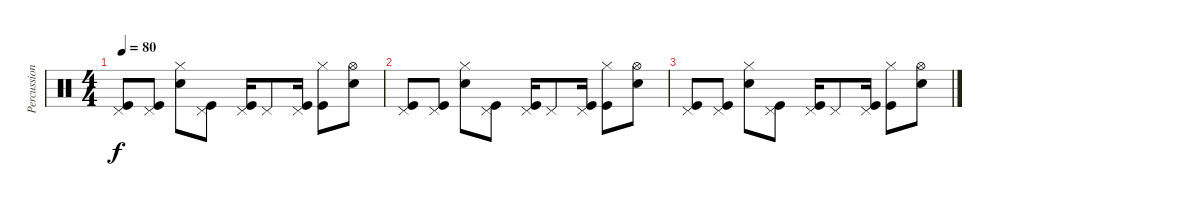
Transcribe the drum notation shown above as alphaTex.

\track ("Percussions" "Percussion") {instrument percussion}
\staff {score}
\articulation defaults
\ts (4 4)
\tempo 80
\clef neutral
\ks c
("Pedal Hi-Hat (hit)" "Kick (hit)").8{dy f} ("Pedal Hi-Hat (hit)" "Kick (hit)").8 ("Hi-Hat (closed)" "Electric Snare (hit)").8 ("Pedal Hi-Hat (hit)" "Kick (hit)").8 ("Pedal Hi-Hat (hit)" "Kick (hit)").16 "Pedal Hi-Hat (hit)".8 ("Pedal Hi-Hat (hit)" "Kick (hit)").16 ("Hi-Hat (closed)" "Kick (hit)").8 ("Hi-Hat (open)" "Electric Snare (hit)").8 |
("Pedal Hi-Hat (hit)" "Kick (hit)").8 ("Pedal Hi-Hat (hit)" "Kick (hit)").8 ("Hi-Hat (closed)" "Electric Snare (hit)").8 ("Pedal Hi-Hat (hit)" "Kick (hit)").8 ("Pedal Hi-Hat (hit)" "Kick (hit)").16 "Pedal Hi-Hat (hit)".8 ("Pedal Hi-Hat (hit)" "Kick (hit)").16 ("Hi-Hat (closed)" "Kick (hit)").8 ("Hi-Hat (open)" "Electric Snare (hit)").8 |
("Pedal Hi-Hat (hit)" "Kick (hit)").8 ("Pedal Hi-Hat (hit)" "Kick (hit)").8 ("Hi-Hat (closed)" "Electric Snare (hit)").8 ("Pedal Hi-Hat (hit)" "Kick (hit)").8 ("Pedal Hi-Hat (hit)" "Kick (hit)").16 "Pedal Hi-Hat (hit)".8 ("Pedal Hi-Hat (hit)" "Kick (hit)").16 ("Hi-Hat (closed)" "Kick (hit)").8 ("Hi-Hat (open)" "Electric Snare (hit)").8
